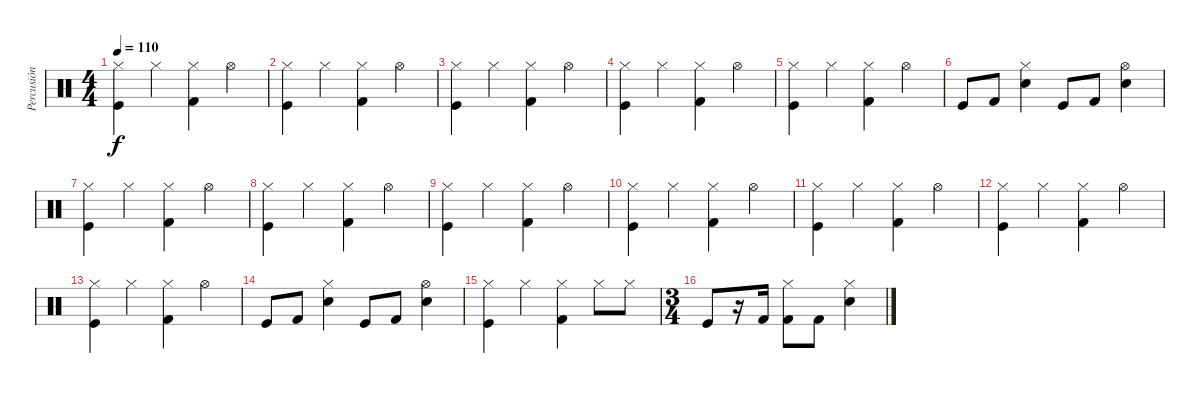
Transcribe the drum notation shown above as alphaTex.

\track ("Percusión" "Percusión") {instrument percussion}
\staff {score}
\articulation defaults
\ts (4 4)
\tempo 110
\clef neutral
\ks c
("Kick (hit)" "Hi-Hat (closed)").4{dy f} "Hi-Hat (closed)".4 ("Kick (hit) 2" "Hi-Hat (closed)").4 "Hi-Hat (open)".4 |
("Kick (hit)" "Hi-Hat (closed)").4 "Hi-Hat (closed)".4 ("Kick (hit) 2" "Hi-Hat (closed)").4 "Hi-Hat (open)".4 |
("Kick (hit)" "Hi-Hat (closed)").4 "Hi-Hat (closed)".4 ("Kick (hit) 2" "Hi-Hat (closed)").4 "Hi-Hat (open)".4 |
("Kick (hit)" "Hi-Hat (closed)").4 "Hi-Hat (closed)".4 ("Kick (hit) 2" "Hi-Hat (closed)").4 "Hi-Hat (open)".4 |
("Kick (hit)" "Hi-Hat (closed)").4 "Hi-Hat (closed)".4 ("Kick (hit) 2" "Hi-Hat (closed)").4 "Hi-Hat (open)".4 |
"Kick (hit)".8 "Kick (hit) 2".8 ("Hi-Hat (closed)" "Snare (hit) 2").4 "Kick (hit)".8 "Kick (hit) 2".8 ("Hi-Hat (open)" "Snare (hit) 2").4 |
("Kick (hit)" "Hi-Hat (closed)").4 "Hi-Hat (closed)".4 ("Kick (hit) 2" "Hi-Hat (closed)").4 "Hi-Hat (open)".4 |
("Kick (hit)" "Hi-Hat (closed)").4 "Hi-Hat (closed)".4 ("Kick (hit) 2" "Hi-Hat (closed)").4 "Hi-Hat (open)".4 |
("Kick (hit)" "Hi-Hat (closed)").4 "Hi-Hat (closed)".4 ("Kick (hit) 2" "Hi-Hat (closed)").4 "Hi-Hat (open)".4 |
("Kick (hit)" "Hi-Hat (closed)").4 "Hi-Hat (closed)".4 ("Kick (hit) 2" "Hi-Hat (closed)").4 "Hi-Hat (open)".4 |
("Kick (hit)" "Hi-Hat (closed)").4 "Hi-Hat (closed)".4 ("Kick (hit) 2" "Hi-Hat (closed)").4 "Hi-Hat (open)".4 |
("Kick (hit)" "Hi-Hat (closed)").4 "Hi-Hat (closed)".4 ("Kick (hit) 2" "Hi-Hat (closed)").4 "Hi-Hat (open)".4 |
("Kick (hit)" "Hi-Hat (closed)").4 "Hi-Hat (closed)".4 ("Kick (hit) 2" "Hi-Hat (closed)").4 "Hi-Hat (open)".4 |
"Kick (hit)".8 "Kick (hit) 2".8 ("Hi-Hat (closed)" "Snare (hit) 2").4 "Kick (hit)".8 "Kick (hit) 2".8 ("Hi-Hat (open)" "Snare (hit) 2").4 |
("Kick (hit)" "Hi-Hat (closed)").4 "Hi-Hat (closed)".4 ("Kick (hit) 2" "Hi-Hat (closed)").4 "Hi-Hat (closed)".8 "Hi-Hat (closed)".8 |
\ts (3 4)
"Kick (hit)".8 r.16 "Kick (hit) 2".16 ("Hi-Hat (closed)" "Kick (hit) 2").8 "Kick (hit) 2".8 ("Hi-Hat (closed)" "Snare (hit) 2").4
